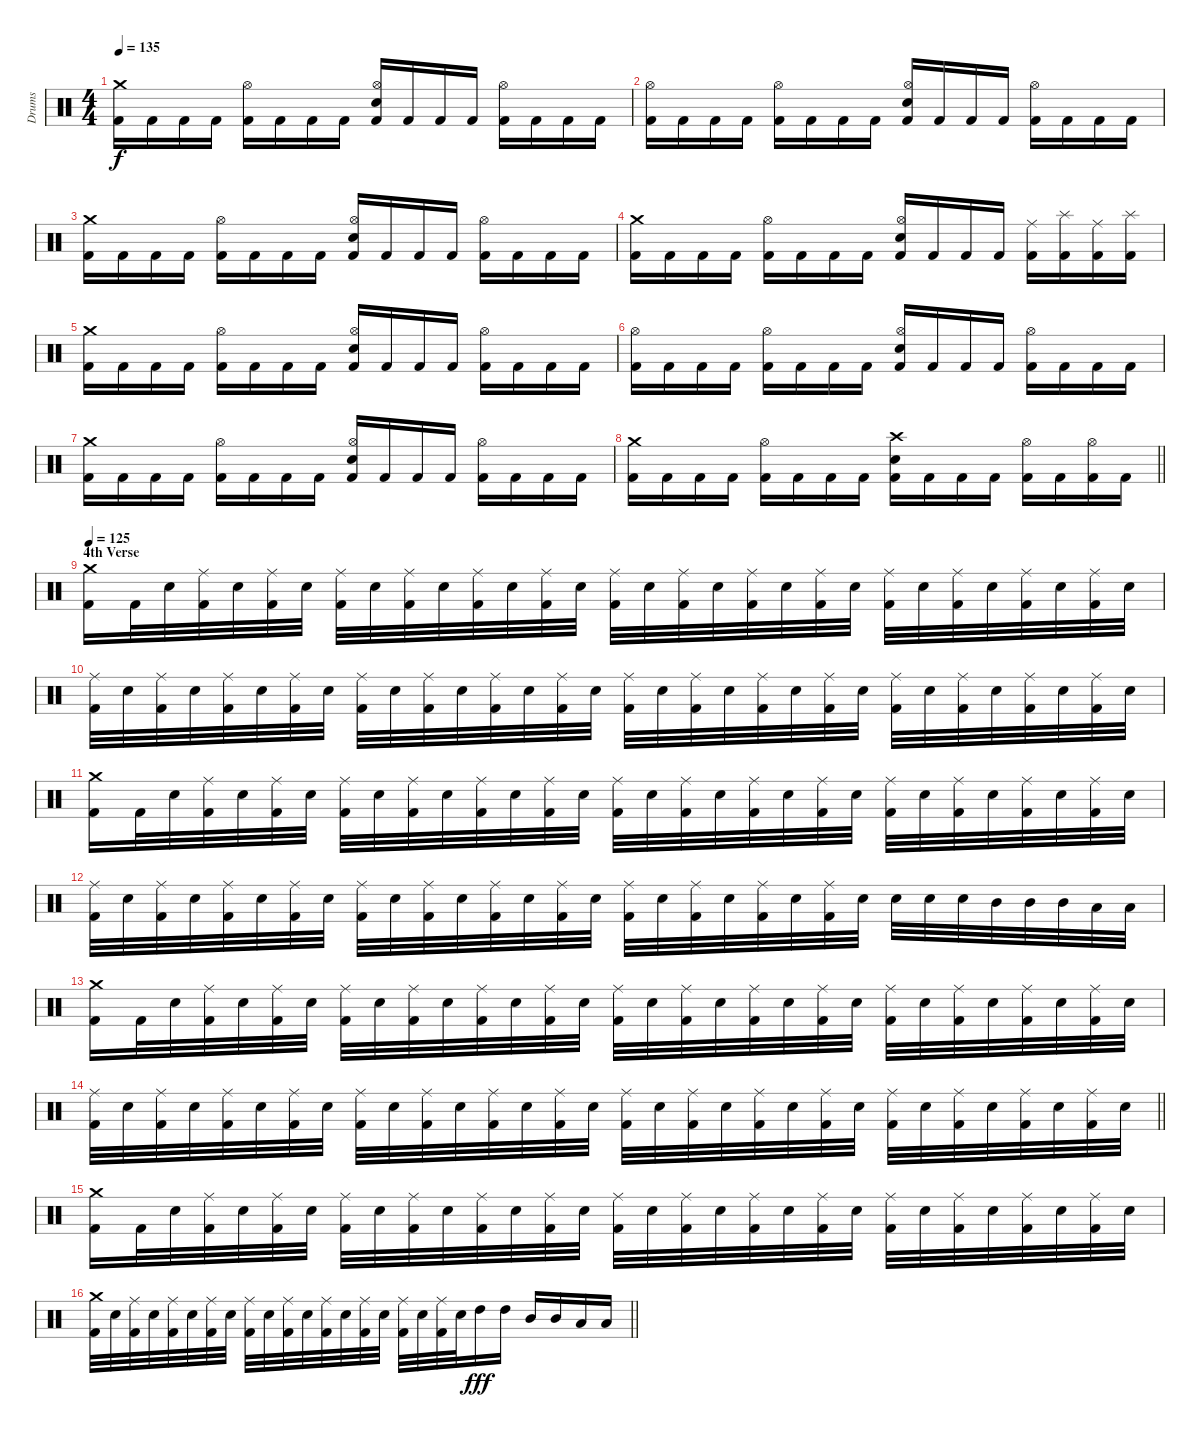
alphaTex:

\track ("Drums" "Drums") {instrument percussion}
\staff {score}
\articulation defaults
\ts (4 4)
\tempo 135
\clef neutral
\ks c
("Kick (hit) 2" "Crash medium (hit)").16{dy f} "Kick (hit) 2".16 "Kick (hit) 2".16 "Kick (hit) 2".16 ("Kick (hit) 2" "Hi-Hat (open)").16 "Kick (hit) 2".16 "Kick (hit) 2".16 "Kick (hit) 2".16 ("Kick (hit) 2" "Electric Snare (hit)" "Hi-Hat (open)").16 "Kick (hit) 2".16 "Kick (hit) 2".16 "Kick (hit) 2".16 ("Kick (hit) 2" "Hi-Hat (open)").16 "Kick (hit) 2".16 "Kick (hit) 2".16 "Kick (hit) 2".16 |
("Kick (hit) 2" "Hi-Hat (open)").16 "Kick (hit) 2".16 "Kick (hit) 2".16 "Kick (hit) 2".16 ("Kick (hit) 2" "Hi-Hat (open)").16 "Kick (hit) 2".16 "Kick (hit) 2".16 "Kick (hit) 2".16 ("Kick (hit) 2" "Electric Snare (hit)" "Hi-Hat (open)").16 "Kick (hit) 2".16 "Kick (hit) 2".16 "Kick (hit) 2".16 ("Kick (hit) 2" "Hi-Hat (open)").16 "Kick (hit) 2".16 "Kick (hit) 2".16 "Kick (hit) 2".16 |
("Kick (hit) 2" "Crash medium (hit)").16 "Kick (hit) 2".16 "Kick (hit) 2".16 "Kick (hit) 2".16 ("Kick (hit) 2" "Hi-Hat (open)").16 "Kick (hit) 2".16 "Kick (hit) 2".16 "Kick (hit) 2".16 ("Kick (hit) 2" "Electric Snare (hit)" "Hi-Hat (open)").16 "Kick (hit) 2".16 "Kick (hit) 2".16 "Kick (hit) 2".16 ("Kick (hit) 2" "Hi-Hat (open)").16 "Kick (hit) 2".16 "Kick (hit) 2".16 "Kick (hit) 2".16 |
("Kick (hit) 2" "Crash medium (hit)").16 "Kick (hit) 2".16 "Kick (hit) 2".16 "Kick (hit) 2".16 ("Kick (hit) 2" "Hi-Hat (open)").16 "Kick (hit) 2".16 "Kick (hit) 2".16 "Kick (hit) 2".16 ("Kick (hit) 2" "Electric Snare (hit)" "Hi-Hat (open)").16 "Kick (hit) 2".16 "Kick (hit) 2".16 "Kick (hit) 2".16 ("Kick (hit) 2" "Ride (middle)").16 ("Kick (hit) 2" "Splash (hit)").16 ("Kick (hit) 2" "Ride (middle)").16 ("Kick (hit) 2" "Splash (hit)").16 |
("Kick (hit) 2" "Crash medium (hit)").16 "Kick (hit) 2".16 "Kick (hit) 2".16 "Kick (hit) 2".16 ("Kick (hit) 2" "Hi-Hat (open)").16 "Kick (hit) 2".16 "Kick (hit) 2".16 "Kick (hit) 2".16 ("Kick (hit) 2" "Electric Snare (hit)" "Hi-Hat (open)").16 "Kick (hit) 2".16 "Kick (hit) 2".16 "Kick (hit) 2".16 ("Kick (hit) 2" "Hi-Hat (open)").16 "Kick (hit) 2".16 "Kick (hit) 2".16 "Kick (hit) 2".16 |
("Kick (hit) 2" "Hi-Hat (open)").16 "Kick (hit) 2".16 "Kick (hit) 2".16 "Kick (hit) 2".16 ("Kick (hit) 2" "Hi-Hat (open)").16 "Kick (hit) 2".16 "Kick (hit) 2".16 "Kick (hit) 2".16 ("Kick (hit) 2" "Electric Snare (hit)" "Hi-Hat (open)").16 "Kick (hit) 2".16 "Kick (hit) 2".16 "Kick (hit) 2".16 ("Kick (hit) 2" "Hi-Hat (open)").16 "Kick (hit) 2".16 "Kick (hit) 2".16 "Kick (hit) 2".16 |
("Kick (hit) 2" "Crash medium (hit)").16 "Kick (hit) 2".16 "Kick (hit) 2".16 "Kick (hit) 2".16 ("Kick (hit) 2" "Hi-Hat (open)").16 "Kick (hit) 2".16 "Kick (hit) 2".16 "Kick (hit) 2".16 ("Kick (hit) 2" "Electric Snare (hit)" "Hi-Hat (open)").16 "Kick (hit) 2".16 "Kick (hit) 2".16 "Kick (hit) 2".16 ("Kick (hit) 2" "Hi-Hat (open)").16 "Kick (hit) 2".16 "Kick (hit) 2".16 "Kick (hit) 2".16 |
\barLineRight lightlight
("Kick (hit) 2" "Crash medium (hit)").16 "Kick (hit) 2".16 "Kick (hit) 2".16 "Kick (hit) 2".16 ("Kick (hit) 2" "Hi-Hat (open)").16 "Kick (hit) 2".16 "Kick (hit) 2".16 "Kick (hit) 2".16 ("Kick (hit) 2" "Electric Snare (hit)" "Crash high (hit)").16 "Kick (hit) 2".16 "Kick (hit) 2".16 "Kick (hit) 2".16 ("Kick (hit) 2" "Hi-Hat (open)").16 "Kick (hit) 2".16 ("Kick (hit) 2" "Hi-Hat (open)").16 "Kick (hit) 2".16 |
\section ("" "4th Verse")
\tempo 125
("Kick (hit) 2" "Crash medium (hit)").16 "Kick (hit) 2".32 "Electric Snare (hit)".32 ("Kick (hit) 2" "Ride (middle)").32 "Electric Snare (hit)".32 ("Kick (hit) 2" "Ride (middle)").32 "Electric Snare (hit)".32 ("Kick (hit) 2" "Ride (middle)").32 "Electric Snare (hit)".32 ("Kick (hit) 2" "Ride (middle)").32 "Electric Snare (hit)".32 ("Kick (hit) 2" "Ride (middle)").32 "Electric Snare (hit)".32 ("Kick (hit) 2" "Ride (middle)").32 "Electric Snare (hit)".32 ("Kick (hit) 2" "Ride (middle)").32 "Electric Snare (hit)".32 ("Kick (hit) 2" "Ride (middle)").32 "Electric Snare (hit)".32 ("Kick (hit) 2" "Ride (middle)").32 "Electric Snare (hit)".32 ("Kick (hit) 2" "Ride (middle)").32 "Electric Snare (hit)".32 ("Kick (hit) 2" "Ride (middle)").32 "Electric Snare (hit)".32 ("Kick (hit) 2" "Ride (middle)").32 "Electric Snare (hit)".32 ("Kick (hit) 2" "Ride (middle)").32 "Electric Snare (hit)".32 ("Kick (hit) 2" "Ride (middle)").32 "Electric Snare (hit)".32 |
("Kick (hit) 2" "Ride (middle)").32 "Electric Snare (hit)".32 ("Kick (hit) 2" "Ride (middle)").32 "Electric Snare (hit)".32 ("Kick (hit) 2" "Ride (middle)").32 "Electric Snare (hit)".32 ("Kick (hit) 2" "Ride (middle)").32 "Electric Snare (hit)".32 ("Kick (hit) 2" "Ride (middle)").32 "Electric Snare (hit)".32 ("Kick (hit) 2" "Ride (middle)").32 "Electric Snare (hit)".32 ("Kick (hit) 2" "Ride (middle)").32 "Electric Snare (hit)".32 ("Kick (hit) 2" "Ride (middle)").32 "Electric Snare (hit)".32 ("Kick (hit) 2" "Ride (middle)").32 "Electric Snare (hit)".32 ("Kick (hit) 2" "Ride (middle)").32 "Electric Snare (hit)".32 ("Kick (hit) 2" "Ride (middle)").32 "Electric Snare (hit)".32 ("Kick (hit) 2" "Ride (middle)").32 "Electric Snare (hit)".32 ("Kick (hit) 2" "Ride (middle)").32 "Electric Snare (hit)".32 ("Kick (hit) 2" "Ride (middle)").32 "Electric Snare (hit)".32 ("Kick (hit) 2" "Ride (middle)").32 "Electric Snare (hit)".32 ("Kick (hit) 2" "Ride (middle)").32 "Electric Snare (hit)".32 |
("Kick (hit) 2" "Crash medium (hit)").16 "Kick (hit) 2".32 "Electric Snare (hit)".32 ("Kick (hit) 2" "Ride (middle)").32 "Electric Snare (hit)".32 ("Kick (hit) 2" "Ride (middle)").32 "Electric Snare (hit)".32 ("Kick (hit) 2" "Ride (middle)").32 "Electric Snare (hit)".32 ("Kick (hit) 2" "Ride (middle)").32 "Electric Snare (hit)".32 ("Kick (hit) 2" "Ride (middle)").32 "Electric Snare (hit)".32 ("Kick (hit) 2" "Ride (middle)").32 "Electric Snare (hit)".32 ("Kick (hit) 2" "Ride (middle)").32 "Electric Snare (hit)".32 ("Kick (hit) 2" "Ride (middle)").32 "Electric Snare (hit)".32 ("Kick (hit) 2" "Ride (middle)").32 "Electric Snare (hit)".32 ("Kick (hit) 2" "Ride (middle)").32 "Electric Snare (hit)".32 ("Kick (hit) 2" "Ride (middle)").32 "Electric Snare (hit)".32 ("Kick (hit) 2" "Ride (middle)").32 "Electric Snare (hit)".32 ("Kick (hit) 2" "Ride (middle)").32 "Electric Snare (hit)".32 ("Kick (hit) 2" "Ride (middle)").32 "Electric Snare (hit)".32 |
("Kick (hit) 2" "Ride (middle)").32 "Electric Snare (hit)".32 ("Kick (hit) 2" "Ride (middle)").32 "Electric Snare (hit)".32 ("Kick (hit) 2" "Ride (middle)").32 "Electric Snare (hit)".32 ("Kick (hit) 2" "Ride (middle)").32 "Electric Snare (hit)".32 ("Kick (hit) 2" "Ride (middle)").32 "Electric Snare (hit)".32 ("Kick (hit) 2" "Ride (middle)").32 "Electric Snare (hit)".32 ("Kick (hit) 2" "Ride (middle)").32 "Electric Snare (hit)".32 ("Kick (hit) 2" "Ride (middle)").32 "Electric Snare (hit)".32 ("Kick (hit) 2" "Ride (middle)").32 "Electric Snare (hit)".32 ("Kick (hit) 2" "Ride (middle)").32 "Electric Snare (hit)".32 ("Kick (hit) 2" "Ride (middle)").32 "Electric Snare (hit)".32 ("Kick (hit) 2" "Ride (middle)").32 "Electric Snare (hit)".32 "Electric Snare (hit)".32 "Electric Snare (hit)".32 "Electric Snare (hit)".32 "Mid Tom (hit)".32 "Mid Tom (hit)".32 "Mid Tom (hit)".32 "Low Tom (hit)".32 "Low Tom (hit)".32 |
("Kick (hit) 2" "Crash medium (hit)").16 "Kick (hit) 2".32 "Electric Snare (hit)".32 ("Kick (hit) 2" "Ride (middle)").32 "Electric Snare (hit)".32 ("Kick (hit) 2" "Ride (middle)").32 "Electric Snare (hit)".32 ("Kick (hit) 2" "Ride (middle)").32 "Electric Snare (hit)".32 ("Kick (hit) 2" "Ride (middle)").32 "Electric Snare (hit)".32 ("Kick (hit) 2" "Ride (middle)").32 "Electric Snare (hit)".32 ("Kick (hit) 2" "Ride (middle)").32 "Electric Snare (hit)".32 ("Kick (hit) 2" "Ride (middle)").32 "Electric Snare (hit)".32 ("Kick (hit) 2" "Ride (middle)").32 "Electric Snare (hit)".32 ("Kick (hit) 2" "Ride (middle)").32 "Electric Snare (hit)".32 ("Kick (hit) 2" "Ride (middle)").32 "Electric Snare (hit)".32 ("Kick (hit) 2" "Ride (middle)").32 "Electric Snare (hit)".32 ("Kick (hit) 2" "Ride (middle)").32 "Electric Snare (hit)".32 ("Kick (hit) 2" "Ride (middle)").32 "Electric Snare (hit)".32 ("Kick (hit) 2" "Ride (middle)").32 "Electric Snare (hit)".32 |
\barLineRight lightlight
("Kick (hit) 2" "Ride (middle)").32 "Electric Snare (hit)".32 ("Kick (hit) 2" "Ride (middle)").32 "Electric Snare (hit)".32 ("Kick (hit) 2" "Ride (middle)").32 "Electric Snare (hit)".32 ("Kick (hit) 2" "Ride (middle)").32 "Electric Snare (hit)".32 ("Kick (hit) 2" "Ride (middle)").32 "Electric Snare (hit)".32 ("Kick (hit) 2" "Ride (middle)").32 "Electric Snare (hit)".32 ("Kick (hit) 2" "Ride (middle)").32 "Electric Snare (hit)".32 ("Kick (hit) 2" "Ride (middle)").32 "Electric Snare (hit)".32 ("Kick (hit) 2" "Ride (middle)").32 "Electric Snare (hit)".32 ("Kick (hit) 2" "Ride (middle)").32 "Electric Snare (hit)".32 ("Kick (hit) 2" "Ride (middle)").32 "Electric Snare (hit)".32 ("Kick (hit) 2" "Ride (middle)").32 "Electric Snare (hit)".32 ("Kick (hit) 2" "Ride (middle)").32 "Electric Snare (hit)".32 ("Kick (hit) 2" "Ride (middle)").32 "Electric Snare (hit)".32 ("Kick (hit) 2" "Ride (middle)").32 "Electric Snare (hit)".32 ("Kick (hit) 2" "Ride (middle)").32 "Electric Snare (hit)".32 |
("Kick (hit) 2" "Crash medium (hit)").16 "Kick (hit) 2".32 "Electric Snare (hit)".32 ("Kick (hit) 2" "Ride (middle)").32 "Electric Snare (hit)".32 ("Kick (hit) 2" "Ride (middle)").32 "Electric Snare (hit)".32 ("Kick (hit) 2" "Ride (middle)").32 "Electric Snare (hit)".32 ("Kick (hit) 2" "Ride (middle)").32 "Electric Snare (hit)".32 ("Kick (hit) 2" "Ride (middle)").32 "Electric Snare (hit)".32 ("Kick (hit) 2" "Ride (middle)").32 "Electric Snare (hit)".32 ("Kick (hit) 2" "Ride (middle)").32 "Electric Snare (hit)".32 ("Kick (hit) 2" "Ride (middle)").32 "Electric Snare (hit)".32 ("Kick (hit) 2" "Ride (middle)").32 "Electric Snare (hit)".32 ("Kick (hit) 2" "Ride (middle)").32 "Electric Snare (hit)".32 ("Kick (hit) 2" "Ride (middle)").32 "Electric Snare (hit)".32 ("Kick (hit) 2" "Ride (middle)").32 "Electric Snare (hit)".32 ("Kick (hit) 2" "Ride (middle)").32 "Electric Snare (hit)".32 ("Kick (hit) 2" "Ride (middle)").32 "Electric Snare (hit)".32 |
\barLineRight lightlight
("Kick (hit) 2" "Crash medium (hit)").32 "Electric Snare (hit)".32 ("Kick (hit) 2" "Ride (middle)").32 "Electric Snare (hit)".32 ("Kick (hit) 2" "Ride (middle)").32 "Electric Snare (hit)".32 ("Kick (hit) 2" "Ride (middle)").32 "Electric Snare (hit)".32 ("Kick (hit) 2" "Ride (middle)").32 "Electric Snare (hit)".32 ("Kick (hit) 2" "Ride (middle)").32 "Electric Snare (hit)".32 ("Kick (hit) 2" "Ride (middle)").32 "Electric Snare (hit)".32 ("Kick (hit) 2" "Ride (middle)").32 "Electric Snare (hit)".32 ("Kick (hit) 2" "Ride (middle)").32 "Electric Snare (hit)".32 ("Kick (hit) 2" "Ride (middle)").32 "Electric Snare (hit)".32 "High Tom (hit)".16{dy fff} "High Tom (hit)".16 "Mid Tom (hit)".16 "Mid Tom (hit)".16 "Low Tom (hit)".16 "Low Tom (hit)".16
